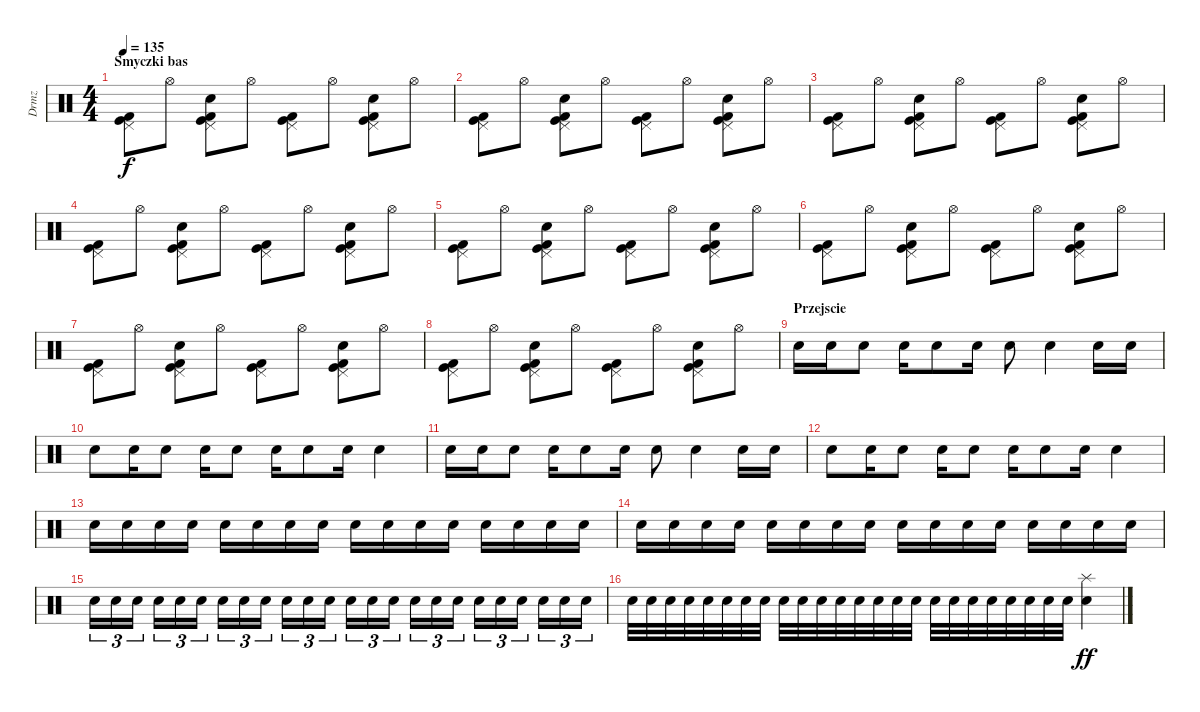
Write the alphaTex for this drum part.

\track ("Drmz" "Drmz") {instrument percussion}
\staff {score}
\articulation defaults
\ts (4 4)
\section ("" "Smyczki bas")
\tempo 135
\clef neutral
\ks c
("Kick (hit) 2" "Kick (hit)" "Pedal Hi-Hat (hit)").8{dy f} "Hi-Hat (open)".8 ("Kick (hit) 2" "Kick (hit)" "Pedal Hi-Hat (hit)" "Hand Clap (hit)").8 "Hi-Hat (open)".8 ("Kick (hit) 2" "Kick (hit)" "Pedal Hi-Hat (hit)").8 "Hi-Hat (open)".8 ("Kick (hit) 2" "Kick (hit)" "Pedal Hi-Hat (hit)" "Hand Clap (hit)").8 "Hi-Hat (open)".8 |
("Kick (hit) 2" "Kick (hit)" "Pedal Hi-Hat (hit)").8 "Hi-Hat (open)".8 ("Kick (hit) 2" "Kick (hit)" "Pedal Hi-Hat (hit)" "Hand Clap (hit)").8 "Hi-Hat (open)".8 ("Kick (hit) 2" "Kick (hit)" "Pedal Hi-Hat (hit)").8 "Hi-Hat (open)".8 ("Kick (hit) 2" "Kick (hit)" "Pedal Hi-Hat (hit)" "Hand Clap (hit)").8 "Hi-Hat (open)".8 |
("Kick (hit) 2" "Kick (hit)" "Pedal Hi-Hat (hit)").8 "Hi-Hat (open)".8 ("Kick (hit) 2" "Kick (hit)" "Pedal Hi-Hat (hit)" "Hand Clap (hit)").8 "Hi-Hat (open)".8 ("Kick (hit) 2" "Kick (hit)" "Pedal Hi-Hat (hit)").8 "Hi-Hat (open)".8 ("Kick (hit) 2" "Kick (hit)" "Pedal Hi-Hat (hit)" "Hand Clap (hit)").8 "Hi-Hat (open)".8 |
("Kick (hit) 2" "Kick (hit)" "Pedal Hi-Hat (hit)").8 "Hi-Hat (open)".8 ("Kick (hit) 2" "Kick (hit)" "Pedal Hi-Hat (hit)" "Hand Clap (hit)").8 "Hi-Hat (open)".8 ("Kick (hit) 2" "Kick (hit)" "Pedal Hi-Hat (hit)").8 "Hi-Hat (open)".8 ("Kick (hit) 2" "Kick (hit)" "Pedal Hi-Hat (hit)" "Hand Clap (hit)").8 "Hi-Hat (open)".8 |
("Kick (hit) 2" "Kick (hit)" "Pedal Hi-Hat (hit)").8 "Hi-Hat (open)".8 ("Kick (hit) 2" "Kick (hit)" "Pedal Hi-Hat (hit)" "Hand Clap (hit)").8 "Hi-Hat (open)".8 ("Kick (hit) 2" "Kick (hit)" "Pedal Hi-Hat (hit)").8 "Hi-Hat (open)".8 ("Kick (hit) 2" "Kick (hit)" "Pedal Hi-Hat (hit)" "Hand Clap (hit)").8 "Hi-Hat (open)".8 |
("Kick (hit) 2" "Kick (hit)" "Pedal Hi-Hat (hit)").8 "Hi-Hat (open)".8 ("Kick (hit) 2" "Kick (hit)" "Pedal Hi-Hat (hit)" "Hand Clap (hit)").8 "Hi-Hat (open)".8 ("Kick (hit) 2" "Kick (hit)" "Pedal Hi-Hat (hit)").8 "Hi-Hat (open)".8 ("Kick (hit) 2" "Kick (hit)" "Pedal Hi-Hat (hit)" "Hand Clap (hit)").8 "Hi-Hat (open)".8 |
("Kick (hit) 2" "Kick (hit)" "Pedal Hi-Hat (hit)").8 "Hi-Hat (open)".8 ("Kick (hit) 2" "Kick (hit)" "Pedal Hi-Hat (hit)" "Hand Clap (hit)").8 "Hi-Hat (open)".8 ("Kick (hit) 2" "Kick (hit)" "Pedal Hi-Hat (hit)").8 "Hi-Hat (open)".8 ("Kick (hit) 2" "Kick (hit)" "Pedal Hi-Hat (hit)" "Hand Clap (hit)").8 "Hi-Hat (open)".8 |
("Kick (hit) 2" "Kick (hit)" "Pedal Hi-Hat (hit)").8 "Hi-Hat (open)".8 ("Kick (hit) 2" "Kick (hit)" "Pedal Hi-Hat (hit)" "Hand Clap (hit)").8 "Hi-Hat (open)".8 ("Kick (hit) 2" "Kick (hit)" "Pedal Hi-Hat (hit)").8 "Hi-Hat (open)".8 ("Kick (hit) 2" "Kick (hit)" "Pedal Hi-Hat (hit)" "Hand Clap (hit)").8 "Hi-Hat (open)".8 |
\section ("" "Przejscie")
"Snare (hit) 2".16 "Snare (hit) 2".16 "Snare (hit) 2".8 "Snare (hit) 2".16 "Snare (hit) 2".8 "Snare (hit) 2".16 "Snare (hit) 2".8 "Snare (hit) 2".4 "Snare (hit) 2".16 "Snare (hit) 2".16 |
"Snare (hit) 2".8 "Snare (hit) 2".16 "Snare (hit) 2".8 "Snare (hit) 2".16 "Snare (hit) 2".8 "Snare (hit) 2".16 "Snare (hit) 2".8 "Snare (hit) 2".16 "Snare (hit) 2".4 |
"Snare (hit) 2".16 "Snare (hit) 2".16 "Snare (hit) 2".8 "Snare (hit) 2".16 "Snare (hit) 2".8 "Snare (hit) 2".16 "Snare (hit) 2".8 "Snare (hit) 2".4 "Snare (hit) 2".16 "Snare (hit) 2".16 |
"Snare (hit) 2".8 "Snare (hit) 2".16 "Snare (hit) 2".8 "Snare (hit) 2".16 "Snare (hit) 2".8 "Snare (hit) 2".16 "Snare (hit) 2".8 "Snare (hit) 2".16 "Snare (hit) 2".4 |
"Snare (hit) 2".16 "Snare (hit) 2".16 "Snare (hit) 2".16 "Snare (hit) 2".16 "Snare (hit) 2".16 "Snare (hit) 2".16 "Snare (hit) 2".16 "Snare (hit) 2".16 "Snare (hit) 2".16 "Snare (hit) 2".16 "Snare (hit) 2".16 "Snare (hit) 2".16 "Snare (hit) 2".16 "Snare (hit) 2".16 "Snare (hit) 2".16 "Snare (hit) 2".16 |
"Snare (hit) 2".16 "Snare (hit) 2".16 "Snare (hit) 2".16 "Snare (hit) 2".16 "Snare (hit) 2".16 "Snare (hit) 2".16 "Snare (hit) 2".16 "Snare (hit) 2".16 "Snare (hit) 2".16 "Snare (hit) 2".16 "Snare (hit) 2".16 "Snare (hit) 2".16 "Snare (hit) 2".16 "Snare (hit) 2".16 "Snare (hit) 2".16 "Snare (hit) 2".16 |
"Snare (hit) 2".16{tu (3 2)} "Snare (hit) 2".16{tu (3 2)} "Snare (hit) 2".16{tu (3 2)} "Snare (hit) 2".16{tu (3 2)} "Snare (hit) 2".16{tu (3 2)} "Snare (hit) 2".16{tu (3 2)} "Snare (hit) 2".16{tu (3 2)} "Snare (hit) 2".16{tu (3 2)} "Snare (hit) 2".16{tu (3 2)} "Snare (hit) 2".16{tu (3 2)} "Snare (hit) 2".16{tu (3 2)} "Snare (hit) 2".16{tu (3 2)} "Snare (hit) 2".16{tu (3 2)} "Snare (hit) 2".16{tu (3 2)} "Snare (hit) 2".16{tu (3 2)} "Snare (hit) 2".16{tu (3 2)} "Snare (hit) 2".16{tu (3 2)} "Snare (hit) 2".16{tu (3 2)} "Snare (hit) 2".16{tu (3 2)} "Snare (hit) 2".16{tu (3 2)} "Snare (hit) 2".16{tu (3 2)} "Snare (hit) 2".16{tu (3 2)} "Snare (hit) 2".16{tu (3 2)} "Snare (hit) 2".16{tu (3 2)} |
"Snare (hit) 2".32 "Snare (hit) 2".32 "Snare (hit) 2".32 "Snare (hit) 2".32 "Snare (hit) 2".32 "Snare (hit) 2".32 "Snare (hit) 2".32 "Snare (hit) 2".32 "Snare (hit) 2".32 "Snare (hit) 2".32 "Snare (hit) 2".32 "Snare (hit) 2".32 "Snare (hit) 2".32 "Snare (hit) 2".32 "Snare (hit) 2".32 "Snare (hit) 2".32 "Snare (hit) 2".32 "Snare (hit) 2".32 "Snare (hit) 2".32 "Snare (hit) 2".32 "Snare (hit) 2".32 "Snare (hit) 2".32 "Snare (hit) 2".32 "Snare (hit) 2".32 ("Snare (hit) 2" "Splash (hit)").4{dy ff}
